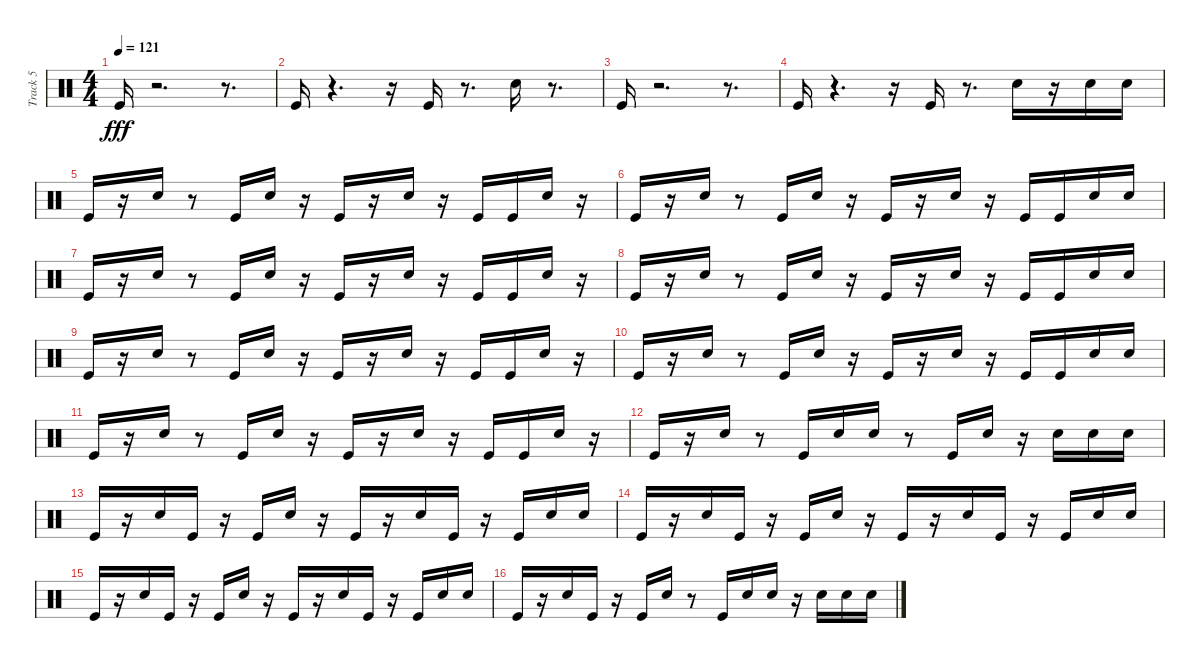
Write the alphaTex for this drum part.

\track ("Track 5" "Track 5") {instrument percussion}
\staff {score}
\articulation defaults
\ts (4 4)
\tempo 121
\clef neutral
\ks c "Kick (hit)".16{dy fff}
r.2{d} r.8{d} |
"Kick (hit)".16 r.4{d} r.16 "Kick (hit)".16 r.8{d} "Snare (hit) 2".16 r.8{d} |
"Kick (hit)".16 r.2{d} r.8{d} |
"Kick (hit)".16 r.4{d} r.16 "Kick (hit)".16 r.8{d} "Snare (hit) 2".16 r.16 "Snare (hit) 2".16 "Snare (hit) 2".16 |
"Kick (hit)".16 r.16 "Snare (hit) 2".16 r.8 "Kick (hit)".16 "Snare (hit) 2".16 r.16 "Kick (hit)".16 r.16 "Snare (hit) 2".16 r.16 "Kick (hit)".16 "Kick (hit)".16 "Snare (hit) 2".16 r.16 |
"Kick (hit)".16 r.16 "Snare (hit) 2".16 r.8 "Kick (hit)".16 "Snare (hit) 2".16 r.16 "Kick (hit)".16 r.16 "Snare (hit) 2".16 r.16 "Kick (hit)".16 "Kick (hit)".16 "Snare (hit) 2".16 "Snare (hit) 2".16 |
"Kick (hit)".16 r.16 "Snare (hit) 2".16 r.8 "Kick (hit)".16 "Snare (hit) 2".16 r.16 "Kick (hit)".16 r.16 "Snare (hit) 2".16 r.16 "Kick (hit)".16 "Kick (hit)".16 "Snare (hit) 2".16 r.16 |
"Kick (hit)".16 r.16 "Snare (hit) 2".16 r.8 "Kick (hit)".16 "Snare (hit) 2".16 r.16 "Kick (hit)".16 r.16 "Snare (hit) 2".16 r.16 "Kick (hit)".16 "Kick (hit)".16 "Snare (hit) 2".16 "Snare (hit) 2".16 |
"Kick (hit)".16 r.16 "Snare (hit) 2".16 r.8 "Kick (hit)".16 "Snare (hit) 2".16 r.16 "Kick (hit)".16 r.16 "Snare (hit) 2".16 r.16 "Kick (hit)".16 "Kick (hit)".16 "Snare (hit) 2".16 r.16 |
"Kick (hit)".16 r.16 "Snare (hit) 2".16 r.8 "Kick (hit)".16 "Snare (hit) 2".16 r.16 "Kick (hit)".16 r.16 "Snare (hit) 2".16 r.16 "Kick (hit)".16 "Kick (hit)".16 "Snare (hit) 2".16 "Snare (hit) 2".16 |
"Kick (hit)".16 r.16 "Snare (hit) 2".16 r.8 "Kick (hit)".16 "Snare (hit) 2".16 r.16 "Kick (hit)".16 r.16 "Snare (hit) 2".16 r.16 "Kick (hit)".16 "Kick (hit)".16 "Snare (hit) 2".16 r.16 |
"Kick (hit)".16 r.16 "Snare (hit) 2".16 r.8 "Kick (hit)".16 "Snare (hit) 2".16 "Snare (hit) 2".16 r.8 "Kick (hit)".16 "Snare (hit) 2".16 r.16 "Snare (hit) 2".16 "Snare (hit) 2".16 "Snare (hit) 2".16 |
"Kick (hit)".16 r.16 "Snare (hit) 2".16 "Kick (hit)".16 r.16 "Kick (hit)".16 "Snare (hit) 2".16 r.16 "Kick (hit)".16 r.16 "Snare (hit) 2".16 "Kick (hit)".16 r.16 "Kick (hit)".16 "Snare (hit) 2".16 "Snare (hit) 2".16 |
"Kick (hit)".16 r.16 "Snare (hit) 2".16 "Kick (hit)".16 r.16 "Kick (hit)".16 "Snare (hit) 2".16 r.16 "Kick (hit)".16 r.16 "Snare (hit) 2".16 "Kick (hit)".16 r.16 "Kick (hit)".16 "Snare (hit) 2".16 "Snare (hit) 2".16 |
"Kick (hit)".16 r.16 "Snare (hit) 2".16 "Kick (hit)".16 r.16 "Kick (hit)".16 "Snare (hit) 2".16 r.16 "Kick (hit)".16 r.16 "Snare (hit) 2".16 "Kick (hit)".16 r.16 "Kick (hit)".16 "Snare (hit) 2".16 "Snare (hit) 2".16 |
"Kick (hit)".16 r.16 "Snare (hit) 2".16 "Kick (hit)".16 r.16 "Kick (hit)".16 "Snare (hit) 2".16 r.8 "Kick (hit)".16 "Snare (hit) 2".16 "Snare (hit) 2".16 r.16 "Snare (hit) 2".16 "Snare (hit) 2".16 "Snare (hit) 2".16
